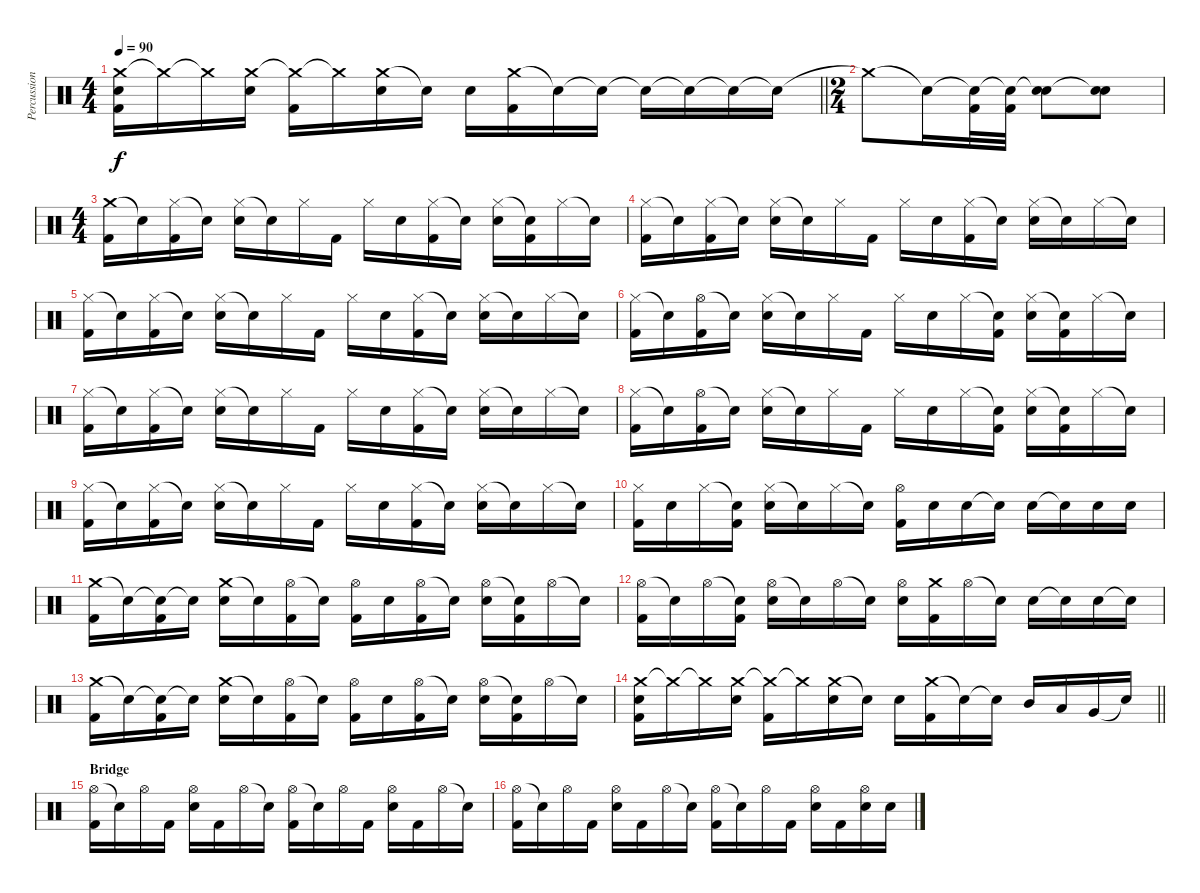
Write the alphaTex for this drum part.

\track ("Percussion" "Percussion") {instrument percussion}
\staff {score}
\articulation defaults
\ts (4 4)
\tempo 90
\clef neutral
\barLineRight lightlight
\ks c
("Crash medium (hit)" "Snare (hit) 2" "Kick (hit) 2").16{dy f} "Crash medium (hit)"{t}.16 "Crash medium (hit)"{t}.16 ("Crash medium (hit)" "Snare (hit) 2").16 ("Crash medium (hit)"{t} "Kick (hit) 2").16 "Crash medium (hit)"{t}.16 ("Crash medium (hit)" "Snare (hit) 2").16 "Snare (hit)"{t}.16 "Snare (hit) 2".16 ("Crash medium (hit)" "Kick (hit) 2").16 "Snare (hit)"{t}.16 "Snare (hit)"{t}.16 "Snare (hit)"{t}.16 "Snare (hit)"{t}.16 "Snare (hit)"{t}.16 "Snare (hit)"{t}.16 |
\ts (2 4)
"Crash medium (hit)"{t}.8 "Snare (hit)"{t}.16 ("Snare (hit)"{t} "Kick (hit) 2").32 ("Snare (hit)"{t} "Kick (hit) 2").32 ("Snare (hit)"{t} "Snare (hit) 2").8 ("Snare (hit)"{t} "Snare (hit) 2").8 |
\ts (4 4)
("Crash medium (hit)" "Kick (hit) 2").16 "Snare (hit)"{t}.16 ("Hi-Hat (closed)" "Kick (hit) 2").16 "Snare (hit)"{t}.16 ("Hi-Hat (closed)" "Snare (hit) 2").16 "Snare (hit)"{t}.16 "Hi-Hat (closed)".16 "Kick (hit) 2".16 "Hi-Hat (closed)".16 "Snare (hit) 2".16 ("Hi-Hat (closed)" "Kick (hit) 2").16 "Snare (hit)"{t}.16 ("Hi-Hat (closed)" "Snare (hit) 2").16 ("Snare (hit)"{t} "Kick (hit) 2").16 "Hi-Hat (closed)".16 "Snare (hit)"{t}.16 |
("Hi-Hat (closed)" "Kick (hit) 2").16 "Snare (hit)"{t}.16 ("Hi-Hat (closed)" "Kick (hit) 2").16 "Snare (hit)"{t}.16 ("Hi-Hat (closed)" "Snare (hit) 2").16 "Snare (hit)"{t}.16 "Hi-Hat (closed)".16 "Kick (hit) 2".16 "Hi-Hat (closed)".16 "Snare (hit) 2".16 ("Hi-Hat (closed)" "Kick (hit) 2").16 "Snare (hit)"{t}.16 ("Hi-Hat (closed)" "Snare (hit) 2").16 "Snare (hit)"{t}.16 "Hi-Hat (closed)".16 "Snare (hit)"{t}.16 |
("Hi-Hat (closed)" "Kick (hit) 2").16 "Snare (hit)"{t}.16 ("Hi-Hat (closed)" "Kick (hit) 2").16 "Snare (hit)"{t}.16 ("Hi-Hat (closed)" "Snare (hit) 2").16 "Snare (hit)"{t}.16 "Hi-Hat (closed)".16 "Kick (hit) 2".16 "Hi-Hat (closed)".16 "Snare (hit) 2".16 ("Hi-Hat (closed)" "Kick (hit) 2").16 "Snare (hit)"{t}.16 ("Hi-Hat (closed)" "Snare (hit) 2").16 "Snare (hit)"{t}.16 "Hi-Hat (closed)".16 "Snare (hit)"{t}.16 |
("Hi-Hat (closed)" "Kick (hit) 2").16 "Snare (hit)"{t}.16 ("Hi-Hat (open)" "Kick (hit) 2").16 "Snare (hit)"{t}.16 ("Hi-Hat (closed)" "Snare (hit) 2").16 "Snare (hit)"{t}.16 "Hi-Hat (closed)".16 "Kick (hit) 2".16 "Hi-Hat (closed)".16 "Snare (hit) 2".16 "Hi-Hat (closed)".16 ("Snare (hit)"{t} "Kick (hit) 2").16 ("Hi-Hat (closed)" "Snare (hit) 2").16 ("Snare (hit)"{t} "Kick (hit) 2").16 "Hi-Hat (closed)".16 "Snare (hit)"{t}.16 |
("Hi-Hat (closed)" "Kick (hit) 2").16 "Snare (hit)"{t}.16 ("Hi-Hat (closed)" "Kick (hit) 2").16 "Snare (hit)"{t}.16 ("Hi-Hat (closed)" "Snare (hit) 2").16 "Snare (hit)"{t}.16 "Hi-Hat (closed)".16 "Kick (hit) 2".16 "Hi-Hat (closed)".16 "Snare (hit) 2".16 ("Hi-Hat (closed)" "Kick (hit) 2").16 "Snare (hit)"{t}.16 ("Hi-Hat (closed)" "Snare (hit) 2").16 "Snare (hit)"{t}.16 "Hi-Hat (closed)".16 "Snare (hit)"{t}.16 |
("Hi-Hat (closed)" "Kick (hit) 2").16 "Snare (hit)"{t}.16 ("Hi-Hat (open)" "Kick (hit) 2").16 "Snare (hit)"{t}.16 ("Hi-Hat (closed)" "Snare (hit) 2").16 "Snare (hit)"{t}.16 "Hi-Hat (closed)".16 "Kick (hit) 2".16 "Hi-Hat (closed)".16 "Snare (hit) 2".16 "Hi-Hat (closed)".16 ("Snare (hit)"{t} "Kick (hit) 2").16 ("Hi-Hat (closed)" "Snare (hit) 2").16 ("Snare (hit)"{t} "Kick (hit) 2").16 "Hi-Hat (closed)".16 "Snare (hit)"{t}.16 |
("Hi-Hat (closed)" "Kick (hit) 2").16 "Snare (hit)"{t}.16 ("Hi-Hat (closed)" "Kick (hit) 2").16 "Snare (hit)"{t}.16 ("Hi-Hat (closed)" "Snare (hit) 2").16 "Snare (hit)"{t}.16 "Hi-Hat (closed)".16 "Kick (hit) 2".16 "Hi-Hat (closed)".16 "Snare (hit) 2".16 ("Hi-Hat (closed)" "Kick (hit) 2").16 "Snare (hit)"{t}.16 ("Hi-Hat (closed)" "Snare (hit) 2").16 "Snare (hit)"{t}.16 "Hi-Hat (closed)".16 "Snare (hit)"{t}.16 |
("Hi-Hat (closed)" "Kick (hit) 2").16 "Snare (hit) 2".16 "Hi-Hat (closed)".16 ("Snare (hit)"{t} "Kick (hit) 2").16 ("Hi-Hat (closed)" "Snare (hit) 2").16 "Snare (hit)"{t}.16 "Hi-Hat (closed)".16 "Snare (hit)"{t}.16 ("Hi-Hat (open)" "Kick (hit) 2").16 "Snare (hit) 2".16 "Snare (hit) 2".16 "Snare (hit)"{t}.16 "Snare (hit) 2".16 "Snare (hit) 2"{t}.16 "Snare (hit) 2".16 "Snare (hit) 2".16 |
("Crash medium (hit)" "Kick (hit) 2").16 "Snare (hit)"{t}.16 ("Snare (hit)"{t} "Kick (hit) 2").16 "Snare (hit)"{t}.16 ("Crash medium (hit)" "Snare (hit) 2").16 "Snare (hit)"{t}.16 ("Hi-Hat (open)" "Kick (hit) 2").16 "Snare (hit)"{t}.16 ("Hi-Hat (open)" "Kick (hit) 2").16 "Snare (hit) 2".16 ("Hi-Hat (open)" "Kick (hit) 2").16 "Snare (hit)"{t}.16 ("Hi-Hat (open)" "Snare (hit) 2").16 ("Snare (hit)"{t} "Kick (hit) 2").16 "Hi-Hat (open)".16 "Snare (hit)"{t}.16 |
("Hi-Hat (open)" "Kick (hit) 2").16 "Snare (hit)"{t}.16 "Hi-Hat (open)".16 ("Snare (hit)"{t} "Kick (hit) 2").16 ("Hi-Hat (open)" "Snare (hit) 2").16 "Snare (hit)"{t}.16 "Hi-Hat (open)".16 "Snare (hit)"{t}.16 ("Hi-Hat (open)" "Snare (hit) 2").16 ("Crash medium (hit)" "Kick (hit) 2").16 "Hi-Hat (open)".16 "Snare (hit)"{t}.16 "Snare (hit) 2".16 "Snare (hit)"{t}.16 "Snare (hit) 2".16 "Snare (hit)"{t}.16 |
("Crash medium (hit)" "Kick (hit) 2").16 "Snare (hit)"{t}.16 ("Snare (hit)"{t} "Kick (hit) 2").16 "Snare (hit)"{t}.16 ("Crash medium (hit)" "Snare (hit) 2").16 "Snare (hit)"{t}.16 ("Hi-Hat (open)" "Kick (hit) 2").16 "Snare (hit)"{t}.16 ("Hi-Hat (open)" "Kick (hit) 2").16 "Snare (hit) 2".16 ("Hi-Hat (open)" "Kick (hit) 2").16 "Snare (hit)"{t}.16 ("Hi-Hat (open)" "Snare (hit) 2").16 ("Snare (hit)"{t} "Kick (hit) 2").16 "Hi-Hat (open)".16 "Snare (hit)"{t}.16 |
\barLineRight lightlight
("Crash medium (hit)" "Snare (hit) 2" "Kick (hit) 2").16 "Crash medium (hit)"{t}.16 "Crash medium (hit)"{t}.16 ("Crash medium (hit)" "Snare (hit) 2").16 ("Crash medium (hit)"{t} "Kick (hit) 2").16 "Crash medium (hit)"{t}.16 ("Crash medium (hit)" "Snare (hit) 2").16 "Snare (hit)"{t}.16 "Snare (hit) 2".16 ("Crash medium (hit)" "Kick (hit) 2").16 "Snare (hit)"{t}.16 "Snare (hit)"{t}.16 "Mid Tom (hit)".16 "Low Tom (hit)".16 "Very Low Tom (hit)".16 "Snare (hit)"{t}.16 |
\section ("" "Bridge")
("Hi-Hat (open)" "Kick (hit) 2").16 "Snare (hit)"{t}.16 "Hi-Hat (open)".16 "Kick (hit) 2".16 ("Hi-Hat (open)" "Snare (hit) 2").16 "Kick (hit) 2".16 "Hi-Hat (open)".16 "Snare (hit)"{t}.16 ("Hi-Hat (open)" "Kick (hit) 2").16 "Snare (hit)"{t}.16 "Hi-Hat (open)".16 "Kick (hit) 2".16 ("Hi-Hat (open)" "Snare (hit) 2").16 "Kick (hit) 2".16 "Hi-Hat (open)".16 "Snare (hit)"{t}.16 |
("Hi-Hat (open)" "Kick (hit) 2").16 "Snare (hit)"{t}.16 "Hi-Hat (open)".16 "Kick (hit) 2".16 ("Hi-Hat (open)" "Snare (hit) 2").16 "Kick (hit) 2".16 "Hi-Hat (open)".16 "Snare (hit)"{t}.16 ("Hi-Hat (open)" "Kick (hit) 2").16 "Snare (hit)"{t}.16 "Hi-Hat (open)".16 "Kick (hit) 2".16 ("Hi-Hat (open)" "Snare (hit) 2").16 "Kick (hit) 2".16 ("Hi-Hat (open)" "Snare (hit) 2").16 "Snare (hit) 2".16
